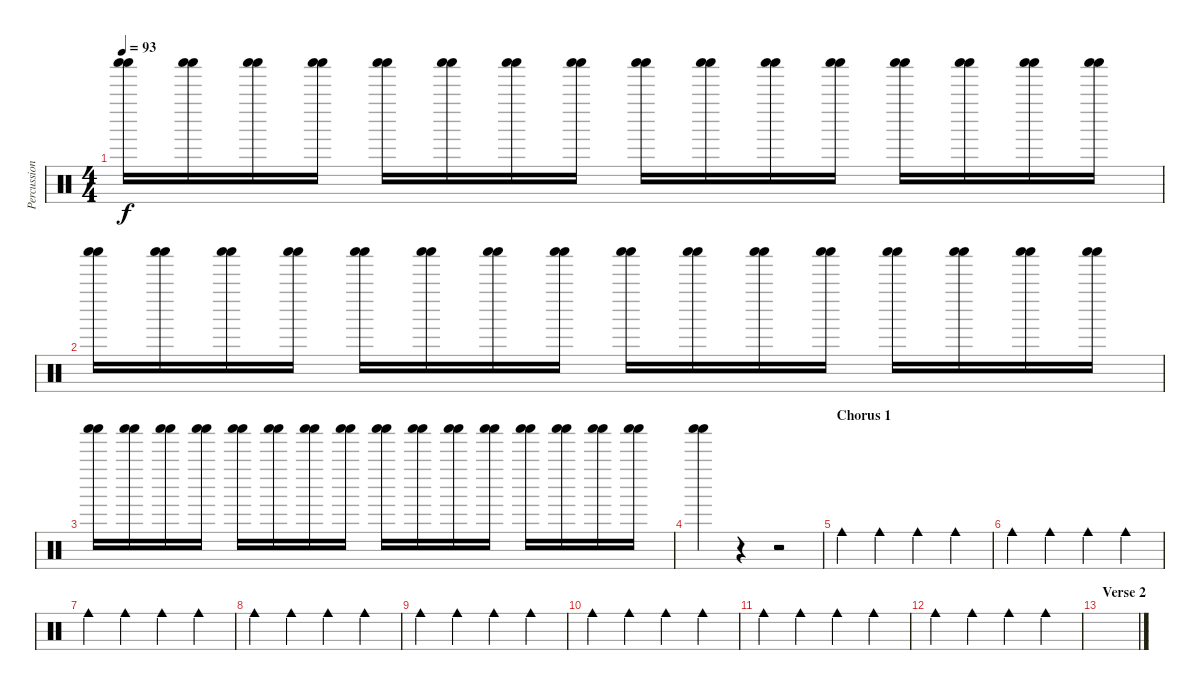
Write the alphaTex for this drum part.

\track ("Percussions" "Percussion") {instrument percussion}
\staff {score}
\articulation defaults
\ts (4 4)
\tempo 93
\clef neutral
\ks c
("Shaker (hit)" "Shaker (hit)").16{dy f} ("Shaker (hit)" "Shaker (hit)").16 ("Shaker (hit)" "Shaker (hit)").16 ("Shaker (hit)" "Shaker (hit)").16 ("Shaker (hit)" "Shaker (hit)").16 ("Shaker (hit)" "Shaker (hit)").16 ("Shaker (hit)" "Shaker (hit)").16 ("Shaker (hit)" "Shaker (hit)").16 ("Shaker (hit)" "Shaker (hit)").16 ("Shaker (hit)" "Shaker (hit)").16 ("Shaker (hit)" "Shaker (hit)").16 ("Shaker (hit)" "Shaker (hit)").16 ("Shaker (hit)" "Shaker (hit)").16 ("Shaker (hit)" "Shaker (hit)").16 ("Shaker (hit)" "Shaker (hit)").16 ("Shaker (hit)" "Shaker (hit)").16 |
("Shaker (hit)" "Shaker (hit)").16 ("Shaker (hit)" "Shaker (hit)").16 ("Shaker (hit)" "Shaker (hit)").16 ("Shaker (hit)" "Shaker (hit)").16 ("Shaker (hit)" "Shaker (hit)").16 ("Shaker (hit)" "Shaker (hit)").16 ("Shaker (hit)" "Shaker (hit)").16 ("Shaker (hit)" "Shaker (hit)").16 ("Shaker (hit)" "Shaker (hit)").16 ("Shaker (hit)" "Shaker (hit)").16 ("Shaker (hit)" "Shaker (hit)").16 ("Shaker (hit)" "Shaker (hit)").16 ("Shaker (hit)" "Shaker (hit)").16 ("Shaker (hit)" "Shaker (hit)").16 ("Shaker (hit)" "Shaker (hit)").16 ("Shaker (hit)" "Shaker (hit)").16 |
("Shaker (hit)" "Shaker (hit)").16 ("Shaker (hit)" "Shaker (hit)").16 ("Shaker (hit)" "Shaker (hit)").16 ("Shaker (hit)" "Shaker (hit)").16 ("Shaker (hit)" "Shaker (hit)").16 ("Shaker (hit)" "Shaker (hit)").16 ("Shaker (hit)" "Shaker (hit)").16 ("Shaker (hit)" "Shaker (hit)").16 ("Shaker (hit)" "Shaker (hit)").16 ("Shaker (hit)" "Shaker (hit)").16 ("Shaker (hit)" "Shaker (hit)").16 ("Shaker (hit)" "Shaker (hit)").16 ("Shaker (hit)" "Shaker (hit)").16 ("Shaker (hit)" "Shaker (hit)").16 ("Shaker (hit)" "Shaker (hit)").16 ("Shaker (hit)" "Shaker (hit)").16 |
("Shaker (hit)" "Shaker (hit)").4 r.4 r.2 |
\section ("" "Chorus 1")
"Cowbell medium (hit)".4 "Cowbell medium (hit)".4 "Cowbell medium (hit)".4 "Cowbell medium (hit)".4 |
"Cowbell medium (hit)".4 "Cowbell medium (hit)".4 "Cowbell medium (hit)".4 "Cowbell medium (hit)".4 |
"Cowbell medium (hit)".4 "Cowbell medium (hit)".4 "Cowbell medium (hit)".4 "Cowbell medium (hit)".4 |
"Cowbell medium (hit)".4 "Cowbell medium (hit)".4 "Cowbell medium (hit)".4 "Cowbell medium (hit)".4 |
"Cowbell medium (hit)".4 "Cowbell medium (hit)".4 "Cowbell medium (hit)".4 "Cowbell medium (hit)".4 |
"Cowbell medium (hit)".4 "Cowbell medium (hit)".4 "Cowbell medium (hit)".4 "Cowbell medium (hit)".4 |
"Cowbell medium (hit)".4 "Cowbell medium (hit)".4 "Cowbell medium (hit)".4 "Cowbell medium (hit)".4 |
"Cowbell medium (hit)".4 "Cowbell medium (hit)".4 "Cowbell medium (hit)".4 "Cowbell medium (hit)".4 |
\section ("" "Verse 2")
